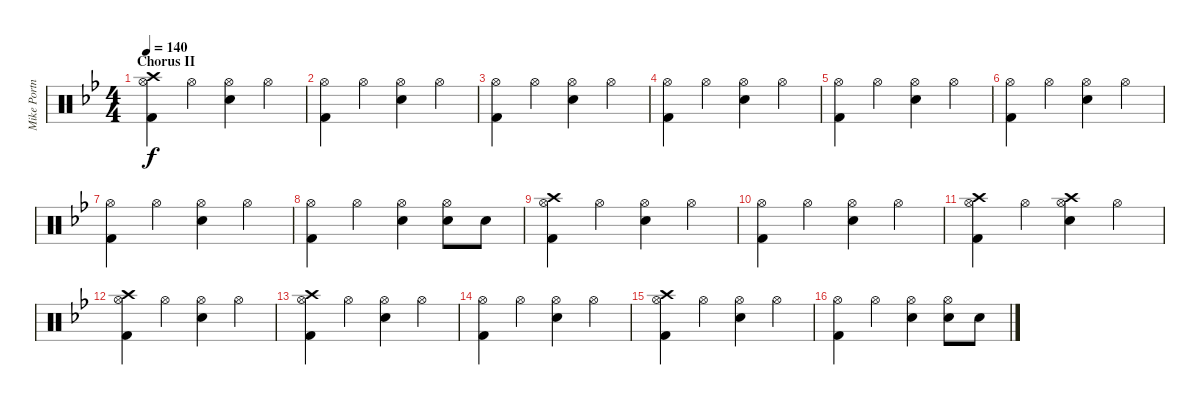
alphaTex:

\track ("Mike Portnoy - Drums" "Mike Portn") {instrument percussion}
\staff {score}
\articulation defaults
\ts (4 4)
\section ("" "Chorus II")
\tempo 140
\clef neutral
\ks bb
("Crash high (hit)" "Hi-Hat (open)" "Kick (hit) 2").4{dy f} "Hi-Hat (open)".4 ("Hi-Hat (open)" "Snare (hit) 2").4 "Hi-Hat (open)".4 |
("Hi-Hat (open)" "Kick (hit) 2").4 "Hi-Hat (open)".4 ("Hi-Hat (open)" "Snare (hit) 2").4 "Hi-Hat (open)".4 |
("Hi-Hat (open)" "Kick (hit) 2").4 "Hi-Hat (open)".4 ("Hi-Hat (open)" "Snare (hit) 2").4 "Hi-Hat (open)".4 |
("Hi-Hat (open)" "Kick (hit) 2").4 "Hi-Hat (open)".4 ("Hi-Hat (open)" "Snare (hit) 2").4 "Hi-Hat (open)".4 |
("Hi-Hat (open)" "Kick (hit) 2").4 "Hi-Hat (open)".4 ("Hi-Hat (open)" "Snare (hit) 2").4 "Hi-Hat (open)".4 |
("Hi-Hat (open)" "Kick (hit) 2").4 "Hi-Hat (open)".4 ("Hi-Hat (open)" "Snare (hit) 2").4 "Hi-Hat (open)".4 |
("Hi-Hat (open)" "Kick (hit) 2").4 "Hi-Hat (open)".4 ("Hi-Hat (open)" "Snare (hit) 2").4 "Hi-Hat (open)".4 |
("Hi-Hat (open)" "Kick (hit) 2").4 "Hi-Hat (open)".4 ("Hi-Hat (open)" "Snare (hit) 2").4 ("Hi-Hat (open)" "Snare (hit) 2").8 "Snare (hit) 2".8 |
("Crash high (hit)" "Hi-Hat (open)" "Kick (hit) 2").4 "Hi-Hat (open)".4 ("Hi-Hat (open)" "Snare (hit) 2").4 "Hi-Hat (open)".4 |
("Hi-Hat (open)" "Kick (hit) 2").4 "Hi-Hat (open)".4 ("Hi-Hat (open)" "Snare (hit) 2").4 "Hi-Hat (open)".4 |
("Crash high (hit)" "Hi-Hat (open)" "Kick (hit) 2").4 "Hi-Hat (open)".4 ("Crash high (hit)" "Hi-Hat (open)" "Snare (hit) 2").4 "Hi-Hat (open)".4 |
("Crash high (hit)" "Hi-Hat (open)" "Kick (hit) 2").4 "Hi-Hat (open)".4 ("Hi-Hat (open)" "Snare (hit) 2").4 "Hi-Hat (open)".4 |
("Crash high (hit)" "Hi-Hat (open)" "Kick (hit) 2").4 "Hi-Hat (open)".4 ("Hi-Hat (open)" "Snare (hit) 2").4 "Hi-Hat (open)".4 |
("Hi-Hat (open)" "Kick (hit) 2").4 "Hi-Hat (open)".4 ("Hi-Hat (open)" "Snare (hit) 2").4 "Hi-Hat (open)".4 |
("Crash high (hit)" "Hi-Hat (open)" "Kick (hit) 2").4 "Hi-Hat (open)".4 ("Hi-Hat (open)" "Snare (hit) 2").4 "Hi-Hat (open)".4 |
("Hi-Hat (open)" "Kick (hit) 2").4 "Hi-Hat (open)".4 ("Hi-Hat (open)" "Snare (hit) 2").4 ("Hi-Hat (open)" "Snare (hit) 2").8 "Snare (hit) 2".8
